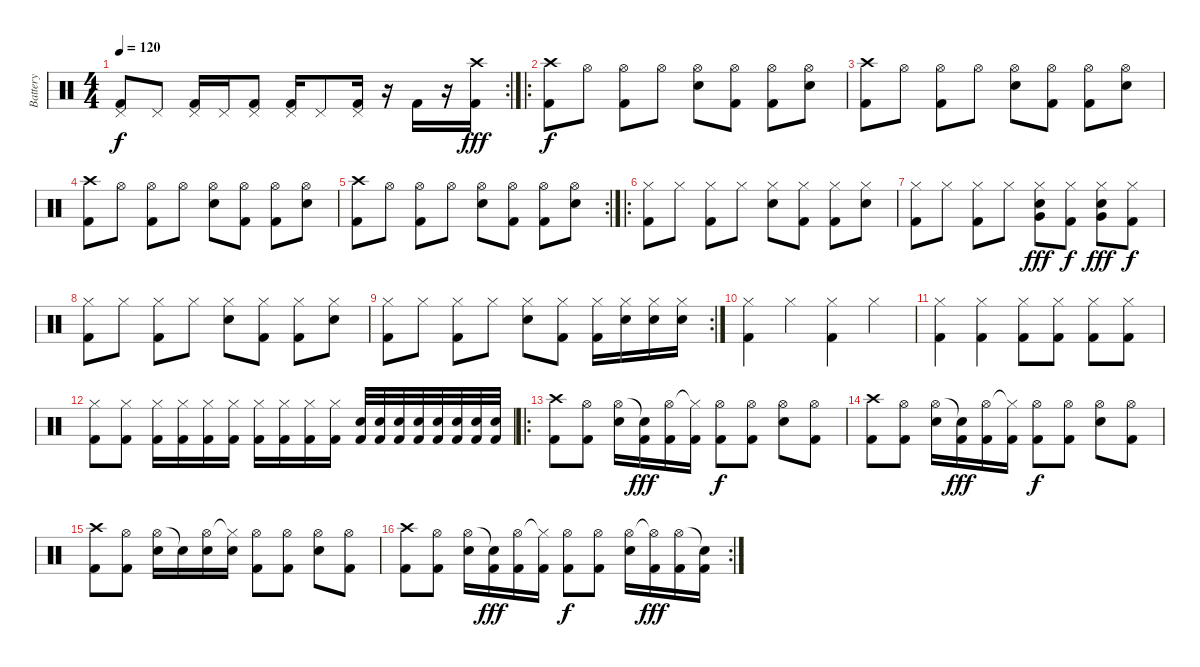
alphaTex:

\track ("Battery" "Battery") {instrument percussion}
\staff {score}
\articulation defaults
\rc 2
\ts (4 4)
\tempo 120
\clef neutral
\ks c
("Pedal Hi-Hat (hit)" "Kick (hit) 2").8{dy f} "Pedal Hi-Hat (hit)".8 ("Pedal Hi-Hat (hit)" "Kick (hit) 2").16 "Pedal Hi-Hat (hit)".16 ("Pedal Hi-Hat (hit)" "Kick (hit) 2").8 ("Pedal Hi-Hat (hit)" "Kick (hit) 2").16 "Pedal Hi-Hat (hit)".8 ("Pedal Hi-Hat (hit)" "Kick (hit) 2").16 r.16 "Kick (hit) 2".16 r.16 ("Crash high (hit)" "Kick (hit) 2").16{dy fff} |
\ro
("Crash high (hit)" "Kick (hit) 2").8{dy f} "Hi-Hat (open)".8 ("Hi-Hat (open)" "Kick (hit) 2").8 "Hi-Hat (open)".8 ("Hi-Hat (open)" "Electric Snare (hit)").8 ("Hi-Hat (open)" "Kick (hit) 2").8 ("Hi-Hat (open)" "Kick (hit) 2").8 ("Hi-Hat (open)" "Electric Snare (hit)").8 |
("Crash high (hit)" "Kick (hit) 2").8 "Hi-Hat (open)".8 ("Hi-Hat (open)" "Kick (hit) 2").8 "Hi-Hat (open)".8 ("Hi-Hat (open)" "Electric Snare (hit)").8 ("Hi-Hat (open)" "Kick (hit) 2").8 ("Hi-Hat (open)" "Kick (hit) 2").8 ("Hi-Hat (open)" "Electric Snare (hit)").8 |
("Crash high (hit)" "Kick (hit) 2").8 "Hi-Hat (open)".8 ("Hi-Hat (open)" "Kick (hit) 2").8 "Hi-Hat (open)".8 ("Hi-Hat (open)" "Electric Snare (hit)").8 ("Hi-Hat (open)" "Kick (hit) 2").8 ("Hi-Hat (open)" "Kick (hit) 2").8 ("Hi-Hat (open)" "Electric Snare (hit)").8 |
\rc 2
("Crash high (hit)" "Kick (hit) 2").8 "Hi-Hat (open)".8 ("Hi-Hat (open)" "Kick (hit) 2").8 "Hi-Hat (open)".8 ("Hi-Hat (open)" "Electric Snare (hit)").8 ("Hi-Hat (open)" "Kick (hit) 2").8 ("Hi-Hat (open)" "Kick (hit) 2").8 ("Hi-Hat (open)" "Electric Snare (hit)").8 |
\ro
("Hi-Hat (closed)" "Kick (hit) 2").8 "Hi-Hat (closed)".8 ("Hi-Hat (closed)" "Kick (hit) 2").8 "Hi-Hat (closed)".8 ("Hi-Hat (closed)" "Electric Snare (hit)").8 ("Hi-Hat (closed)" "Kick (hit) 2").8 ("Hi-Hat (closed)" "Kick (hit) 2").8 ("Hi-Hat (closed)" "Electric Snare (hit)").8 |
("Hi-Hat (closed)" "Kick (hit) 2").8 "Hi-Hat (closed)".8 ("Hi-Hat (closed)" "Kick (hit) 2").8 "Hi-Hat (closed)".8 ("Hi-Hat (closed)" "Very Low Tom (hit)" "Electric Snare (hit)").8{dy fff} ("Hi-Hat (closed)" "Kick (hit) 2").8{dy f} ("Hi-Hat (closed)" "Very Low Tom (hit)" "Electric Snare (hit)").8{dy fff} ("Hi-Hat (closed)" "Kick (hit) 2").8{dy f} |
("Hi-Hat (closed)" "Kick (hit) 2").8 "Hi-Hat (closed)".8 ("Hi-Hat (closed)" "Kick (hit) 2").8 "Hi-Hat (closed)".8 ("Hi-Hat (closed)" "Electric Snare (hit)").8 ("Hi-Hat (closed)" "Kick (hit) 2").8 ("Hi-Hat (closed)" "Kick (hit) 2").8 ("Hi-Hat (closed)" "Electric Snare (hit)").8 |
\rc 2
("Hi-Hat (closed)" "Kick (hit) 2").8 "Hi-Hat (closed)".8 ("Hi-Hat (closed)" "Kick (hit) 2").8 "Hi-Hat (closed)".8 ("Hi-Hat (closed)" "Electric Snare (hit)").8 ("Hi-Hat (closed)" "Kick (hit) 2").8 ("Hi-Hat (closed)" "Kick (hit) 2").16 ("Hi-Hat (closed)" "Electric Snare (hit)").16 ("Hi-Hat (closed)" "Electric Snare (hit)").16 ("Hi-Hat (closed)" "Electric Snare (hit)").16 |
("Hi-Hat (closed)" "Kick (hit) 2").4 "Hi-Hat (closed)".4 ("Hi-Hat (closed)" "Kick (hit) 2").4 "Hi-Hat (closed)".4 |
("Hi-Hat (closed)" "Kick (hit) 2").4 ("Hi-Hat (closed)" "Kick (hit) 2").4 ("Hi-Hat (closed)" "Kick (hit) 2").8 ("Hi-Hat (closed)" "Kick (hit) 2").8 ("Hi-Hat (closed)" "Kick (hit) 2").8 ("Hi-Hat (closed)" "Kick (hit) 2").8 |
("Hi-Hat (closed)" "Kick (hit) 2").8 ("Hi-Hat (closed)" "Kick (hit) 2").8 ("Hi-Hat (closed)" "Kick (hit) 2").16 ("Hi-Hat (closed)" "Kick (hit) 2").16 ("Hi-Hat (closed)" "Kick (hit) 2").16 ("Hi-Hat (closed)" "Kick (hit) 2").16 ("Hi-Hat (closed)" "Kick (hit) 2").16 ("Hi-Hat (closed)" "Kick (hit) 2").16 ("Hi-Hat (closed)" "Kick (hit) 2").16 ("Hi-Hat (closed)" "Kick (hit) 2").16 ("Electric Snare (hit)" "Kick (hit) 2").32 ("Electric Snare (hit)" "Kick (hit) 2").32 ("Electric Snare (hit)" "Kick (hit) 2").32 ("Electric Snare (hit)" "Kick (hit) 2").32 ("Electric Snare (hit)" "Kick (hit) 2").32 ("Electric Snare (hit)" "Kick (hit) 2").32 ("Electric Snare (hit)" "Kick (hit) 2").32 ("Electric Snare (hit)" "Kick (hit) 2").32 |
\ro
("Crash high (hit)" "Kick (hit) 2").8 ("Hi-Hat (open)" "Kick (hit) 2").8 ("Hi-Hat (open)" "Electric Snare (hit)").16 ("Snare (hit)"{t} "Kick (hit) 2").16{dy fff} ("Hi-Hat (open)" "Kick (hit) 2").16 ("Hi-Hat (closed)"{t} "Kick (hit) 2").16 ("Hi-Hat (open)" "Kick (hit) 2").8{dy f} ("Hi-Hat (open)" "Kick (hit) 2").8 ("Hi-Hat (open)" "Electric Snare (hit)").8 ("Hi-Hat (open)" "Kick (hit) 2").8 |
("Crash high (hit)" "Kick (hit) 2").8 ("Hi-Hat (open)" "Kick (hit) 2").8 ("Hi-Hat (open)" "Electric Snare (hit)").16 ("Snare (hit)"{t} "Kick (hit) 2").16{dy fff} ("Hi-Hat (open)" "Kick (hit) 2").16 ("Hi-Hat (closed)"{t} "Kick (hit) 2").16 ("Hi-Hat (open)" "Kick (hit) 2").8{dy f} ("Hi-Hat (open)" "Kick (hit) 2").8 ("Hi-Hat (open)" "Electric Snare (hit)").8 ("Hi-Hat (open)" "Kick (hit) 2").8 |
("Crash high (hit)" "Kick (hit) 2").8 ("Hi-Hat (open)" "Kick (hit) 2").8 ("Hi-Hat (open)" "Electric Snare (hit)").16 "Snare (hit)"{t}.16 ("Hi-Hat (open)" "Electric Snare (hit)").16 ("Hi-Hat (closed)"{t} "Electric Snare (hit)").16 ("Hi-Hat (open)" "Kick (hit) 2").8 ("Hi-Hat (open)" "Kick (hit) 2").8 ("Hi-Hat (open)" "Electric Snare (hit)").8 ("Hi-Hat (open)" "Kick (hit) 2").8 |
\rc 2
("Crash high (hit)" "Kick (hit) 2").8 ("Hi-Hat (open)" "Kick (hit) 2").8 ("Hi-Hat (open)" "Electric Snare (hit)").16 ("Snare (hit)"{t} "Kick (hit) 2").16{dy fff} ("Hi-Hat (open)" "Kick (hit) 2").16 ("Hi-Hat (closed)"{t} "Kick (hit) 2").16 ("Hi-Hat (open)" "Kick (hit) 2").8{dy f} ("Hi-Hat (open)" "Kick (hit) 2").8 ("Hi-Hat (open)" "Electric Snare (hit)").16 ("Hi-Hat (open)"{t} "Kick (hit) 2").16{dy fff} ("Hi-Hat (open)" "Kick (hit) 2").16 ("Snare (hit)"{t} "Kick (hit) 2").16
